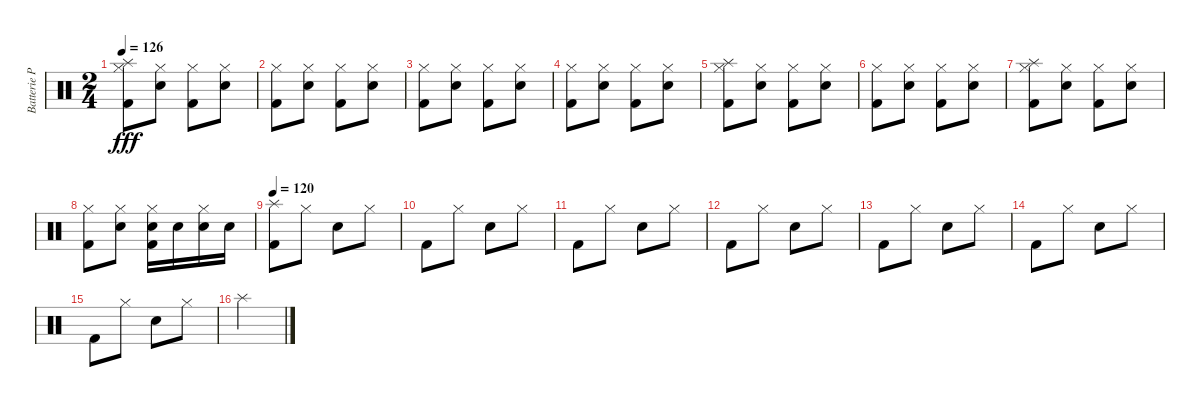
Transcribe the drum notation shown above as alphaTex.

\track ("Batterie Pako" "Batterie P") {instrument percussion}
\staff {score}
\articulation defaults
\ts (2 4)
\tempo 126
\clef neutral
\ks c
("Splash (hit)" "Hi-Hat (closed)" "Kick (hit) 2").8{dy fff} ("Hi-Hat (closed)" "Electric Snare (hit)").8 ("Hi-Hat (closed)" "Kick (hit) 2").8 ("Hi-Hat (closed)" "Electric Snare (hit)").8 |
("Hi-Hat (closed)" "Kick (hit) 2").8 ("Hi-Hat (closed)" "Electric Snare (hit)").8 ("Hi-Hat (closed)" "Kick (hit) 2").8 ("Hi-Hat (closed)" "Electric Snare (hit)").8 |
("Hi-Hat (closed)" "Kick (hit) 2").8 ("Hi-Hat (closed)" "Electric Snare (hit)").8 ("Hi-Hat (closed)" "Kick (hit) 2").8 ("Hi-Hat (closed)" "Electric Snare (hit)").8 |
("Hi-Hat (closed)" "Kick (hit) 2").8 ("Hi-Hat (closed)" "Electric Snare (hit)").8 ("Hi-Hat (closed)" "Kick (hit) 2").8 ("Hi-Hat (closed)" "Electric Snare (hit)").8 |
("Splash (hit)" "Hi-Hat (closed)" "Kick (hit) 2").8 ("Hi-Hat (closed)" "Electric Snare (hit)").8 ("Hi-Hat (closed)" "Kick (hit) 2").8 ("Hi-Hat (closed)" "Electric Snare (hit)").8 |
("Hi-Hat (closed)" "Kick (hit) 2").8 ("Hi-Hat (closed)" "Electric Snare (hit)").8 ("Hi-Hat (closed)" "Kick (hit) 2").8 ("Hi-Hat (closed)" "Electric Snare (hit)").8 |
("Splash (hit)" "Hi-Hat (closed)" "Kick (hit) 2").8 ("Hi-Hat (closed)" "Electric Snare (hit)").8 ("Hi-Hat (closed)" "Kick (hit) 2").8 ("Hi-Hat (closed)" "Electric Snare (hit)").8 |
("Hi-Hat (closed)" "Kick (hit) 2").8 ("Hi-Hat (closed)" "Electric Snare (hit)").8 ("Electric Snare (hit)" "Hi-Hat (closed)" "Kick (hit) 2").16 "Electric Snare (hit)".16 ("Electric Snare (hit)" "Hi-Hat (closed)").16 "Electric Snare (hit)".16 |
\tempo 120
("Kick (hit) 2" "Splash (hit)").8 "Hi-Hat (closed)".8 "Electric Snare (hit)".8 "Hi-Hat (closed)".8 |
"Kick (hit) 2".8 "Hi-Hat (closed)".8 "Electric Snare (hit)".8 "Hi-Hat (closed)".8 |
"Kick (hit) 2".8 "Hi-Hat (closed)".8 "Electric Snare (hit)".8 "Hi-Hat (closed)".8 |
"Kick (hit) 2".8 "Hi-Hat (closed)".8 "Electric Snare (hit)".8 "Hi-Hat (closed)".8 |
"Kick (hit) 2".8 "Hi-Hat (closed)".8 "Electric Snare (hit)".8 "Hi-Hat (closed)".8 |
"Kick (hit) 2".8 "Hi-Hat (closed)".8 "Electric Snare (hit)".8 "Hi-Hat (closed)".8 |
"Kick (hit) 2".8 "Hi-Hat (closed)".8 "Electric Snare (hit)".8 "Hi-Hat (closed)".8 |
"Splash (hit)".2
